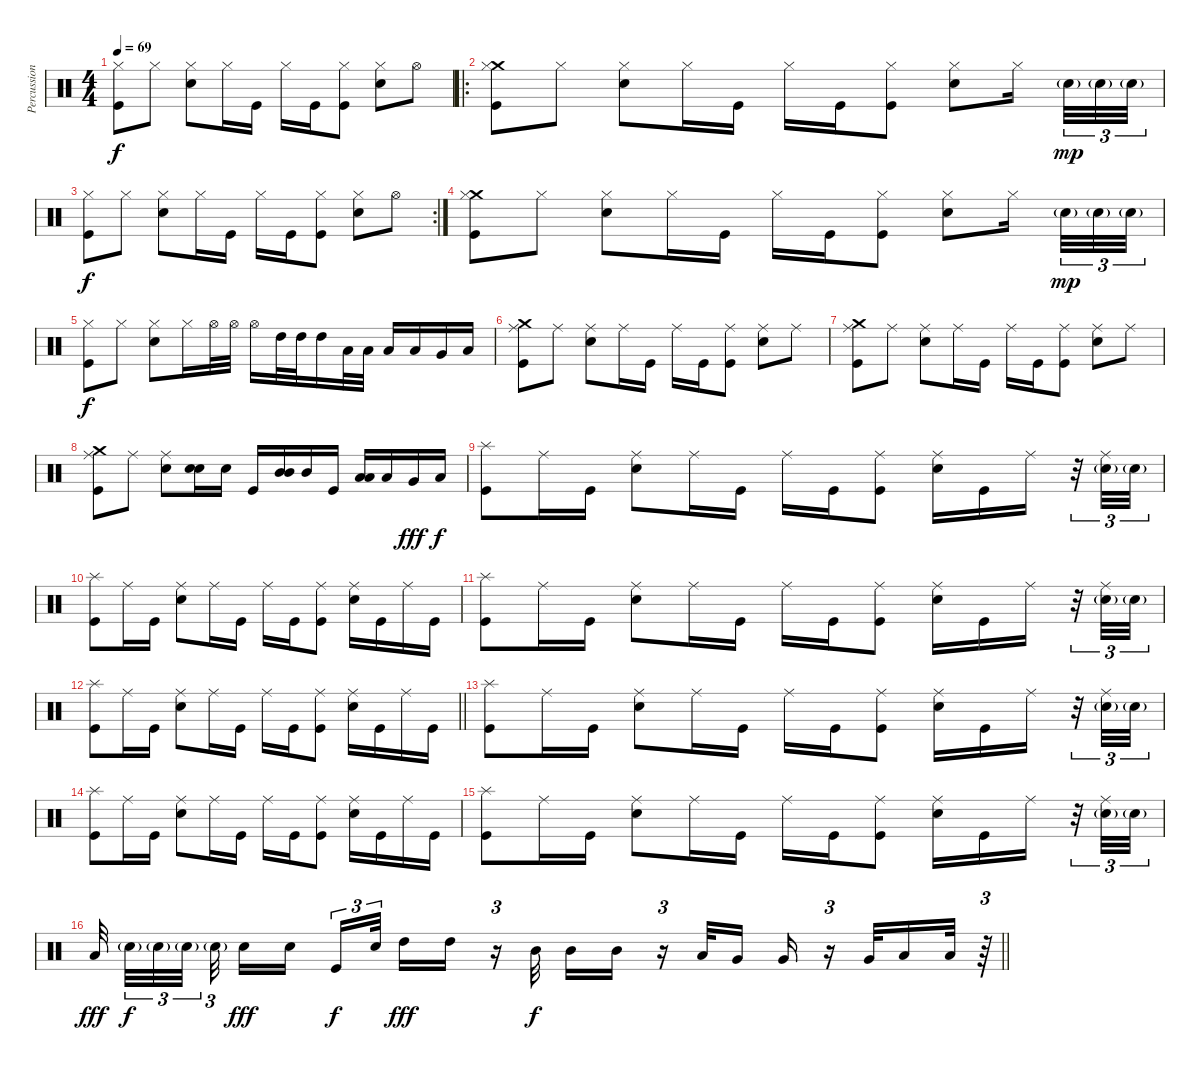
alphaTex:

\track ("Percussion" "Percussion") {instrument percussion}
\staff {score}
\articulation defaults
\ts (4 4)
\tempo 69
\clef neutral
\ks c
("Kick (hit)" "Hi-Hat (closed)").8{dy f} "Hi-Hat (closed)".8 ("Electric Snare (hit)" "Hi-Hat (closed)").8 "Hi-Hat (closed)".16 "Kick (hit)".16 "Hi-Hat (closed)".16 "Kick (hit)".16 ("Kick (hit)" "Hi-Hat (closed)").8 ("Electric Snare (hit)" "Hi-Hat (closed)").8 "Hi-Hat (open)".8 |
\ro
("Crash medium (hit)" "Kick (hit)" "Hi-Hat (closed)").8 "Hi-Hat (closed)".8 ("Electric Snare (hit)" "Hi-Hat (closed)").8 "Hi-Hat (closed)".16 "Kick (hit)".16 "Hi-Hat (closed)".16 "Kick (hit)".16 ("Kick (hit)" "Hi-Hat (closed)").8 ("Electric Snare (hit)" "Hi-Hat (closed)").8 "Hi-Hat (closed)".16{beam splitsecondary} "Electric Snare (hit)"{g}.32{tu (3 2) dy mp} "Electric Snare (hit)"{g}.32{tu (3 2)} "Electric Snare (hit)"{g}.32{tu (3 2)} |
\rc 2
("Kick (hit)" "Hi-Hat (closed)").8{dy f} "Hi-Hat (closed)".8 ("Electric Snare (hit)" "Hi-Hat (closed)").8 "Hi-Hat (closed)".16 "Kick (hit)".16 "Hi-Hat (closed)".16 "Kick (hit)".16 ("Kick (hit)" "Hi-Hat (closed)").8 ("Electric Snare (hit)" "Hi-Hat (closed)").8 "Hi-Hat (open)".8 |
("Crash medium (hit)" "Kick (hit)" "Hi-Hat (closed)").8 "Hi-Hat (closed)".8 ("Electric Snare (hit)" "Hi-Hat (closed)").8 "Hi-Hat (closed)".16 "Kick (hit)".16 "Hi-Hat (closed)".16 "Kick (hit)".16 ("Kick (hit)" "Hi-Hat (closed)").8 ("Electric Snare (hit)" "Hi-Hat (closed)").8 "Hi-Hat (closed)".16{beam splitsecondary} "Electric Snare (hit)"{g}.32{tu (3 2) dy mp} "Electric Snare (hit)"{g}.32{tu (3 2)} "Electric Snare (hit)"{g}.32{tu (3 2)} |
("Kick (hit)" "Hi-Hat (closed)").8{dy f} "Hi-Hat (closed)".8 ("Electric Snare (hit)" "Hi-Hat (closed)").8 "Hi-Hat (closed)".16 "Hi-Hat (open)".32 "Hi-Hat (open)".32 "Hi-Hat (open)".16 "High Tom (hit)".32 "High Tom (hit)".32 "High Tom (hit)".16 "Low Tom (hit)".32 "Low Tom (hit)".32 "Low Tom (hit)".16 "Low Tom (hit)".16 "Very Low Tom (hit)".16 "Low Floor Tom (hit)".16 |
("Crash medium (hit)" "Kick (hit)" "Ride (middle)").8 "Ride (middle)".8 ("Electric Snare (hit)" "Ride (middle)").8 "Ride (middle)".16 "Kick (hit)".16 "Ride (middle)".16 "Kick (hit)".16 ("Kick (hit)" "Ride (middle)").8 ("Electric Snare (hit)" "Ride (middle)").8 "Ride (middle)".8 |
("Crash medium (hit)" "Kick (hit)" "Ride (middle)").8 "Ride (middle)".8 ("Electric Snare (hit)" "Ride (middle)").8 "Ride (middle)".16 "Kick (hit)".16 "Ride (middle)".16 "Kick (hit)".16 ("Kick (hit)" "Ride (middle)").8 ("Electric Snare (hit)" "Ride (middle)").8 "Ride (middle)".8 |
("Crash medium (hit)" "Kick (hit)" "Ride (middle)").8 "Ride (middle)".8 ("Electric Snare (hit)" "Ride (middle)").8 ("Electric Snare (hit)" "Electric Snare (hit)").16{bd 60} "Electric Snare (hit)".16 "Kick (hit)".16 ("Mid Tom (hit)" "Mid Tom (hit)").16{bd 240} "Mid Tom (hit)".16 "Kick (hit)".16 ("Low Floor Tom (hit)" "Low Floor Tom (hit)").16{bd 240} "Low Floor Tom (hit)".16 "Very Low Tom (hit)".16{dy fff} "Low Floor Tom (hit)".16{dy f} |
("Splash (hit)" "Kick (hit)").8 "Ride (middle)".16 "Kick (hit)".16 ("Electric Snare (hit)" "Ride (middle)").8 "Ride (middle)".16 "Kick (hit)".16 "Ride (middle)".16 "Kick (hit)".16 ("Kick (hit)" "Ride (middle)").8 ("Electric Snare (hit)" "Ride (middle)").16 "Kick (hit)".16 "Ride (middle)".16 r.32{tu (3 2)} ("Electric Snare (hit)"{g} "Ride (middle)").32{tu (3 2)} "Electric Snare (hit)"{g}.32{tu (3 2)} |
("Splash (hit)" "Kick (hit)").8 "Ride (middle)".16 "Kick (hit)".16 ("Electric Snare (hit)" "Ride (middle)").8 "Ride (middle)".16 "Kick (hit)".16 "Ride (middle)".16 "Kick (hit)".16 ("Kick (hit)" "Ride (middle)").8 ("Electric Snare (hit)" "Ride (middle)").16 "Kick (hit)".16 "Ride (middle)".16 "Kick (hit)".16 |
("Splash (hit)" "Kick (hit)").8 "Ride (middle)".16 "Kick (hit)".16 ("Electric Snare (hit)" "Ride (middle)").8 "Ride (middle)".16 "Kick (hit)".16 "Ride (middle)".16 "Kick (hit)".16 ("Kick (hit)" "Ride (middle)").8 ("Electric Snare (hit)" "Ride (middle)").16 "Kick (hit)".16 "Ride (middle)".16 r.32{tu (3 2)} ("Electric Snare (hit)"{g} "Ride (middle)").32{tu (3 2)} "Electric Snare (hit)"{g}.32{tu (3 2)} |
\barLineRight lightlight
("Splash (hit)" "Kick (hit)").8 "Ride (middle)".16 "Kick (hit)".16 ("Electric Snare (hit)" "Ride (middle)").8 "Ride (middle)".16 "Kick (hit)".16 "Ride (middle)".16 "Kick (hit)".16 ("Kick (hit)" "Ride (middle)").8 ("Electric Snare (hit)" "Ride (middle)").16 "Kick (hit)".16 "Ride (middle)".16 "Kick (hit)".16 |
("Splash (hit)" "Kick (hit)").8 "Ride (middle)".16 "Kick (hit)".16 ("Electric Snare (hit)" "Ride (middle)").8 "Ride (middle)".16 "Kick (hit)".16 "Ride (middle)".16 "Kick (hit)".16 ("Kick (hit)" "Ride (middle)").8 ("Electric Snare (hit)" "Ride (middle)").16 "Kick (hit)".16 "Ride (middle)".16 r.32{tu (3 2)} ("Electric Snare (hit)"{g} "Ride (middle)").32{tu (3 2)} "Electric Snare (hit)"{g}.32{tu (3 2)} |
("Splash (hit)" "Kick (hit)").8 "Ride (middle)".16 "Kick (hit)".16 ("Electric Snare (hit)" "Ride (middle)").8 "Ride (middle)".16 "Kick (hit)".16 "Ride (middle)".16 "Kick (hit)".16 ("Kick (hit)" "Ride (middle)").8 ("Electric Snare (hit)" "Ride (middle)").16 "Kick (hit)".16 "Ride (middle)".16 "Kick (hit)".16 |
("Splash (hit)" "Kick (hit)").8 "Ride (middle)".16 "Kick (hit)".16 ("Electric Snare (hit)" "Ride (middle)").8 "Ride (middle)".16 "Kick (hit)".16 "Ride (middle)".16 "Kick (hit)".16 ("Kick (hit)" "Ride (middle)").8 ("Electric Snare (hit)" "Ride (middle)").16 "Kick (hit)".16 "Ride (middle)".16 r.32{tu (3 2)} ("Electric Snare (hit)"{g} "Ride (middle)").32{tu (3 2)} "Electric Snare (hit)"{g}.32{tu (3 2)} |
\barLineRight lightlight "Low Tom (hit)".32{dy fff beam splitsecondary} "Electric Snare (hit)"{g}.32{tu (3 2) dy f} "Electric Snare (hit)"{g}.32{tu (3 2)} "Electric Snare (hit)"{g}.32{tu (3 2) beam splitsecondary} "Electric Snare (hit)"{g}.32{tu (3 2) beam splitsecondary} "Electric Snare (hit)".16{dy fff} "Electric Snare (hit)".16{beam splitsecondary} "Kick (hit)".16{tu (3 2) dy f} "Electric Snare (hit)".32{tu (3 2) beam splitsecondary} "High Tom (hit)".16{dy fff} "High Tom (hit)".16
r.16{tu (3 2)} "Mid Tom (hit)".32{dy f} "Mid Tom (hit)".16 "Mid Tom (hit)".16 r.16{tu (3 2)} "Low Tom (hit)".32 "Very Low Tom (hit)".16 "Very Low Tom (hit)".16 r.16{tu (3 2)} "Very Low Tom (hit)".32 "Low Floor Tom (hit)".16 "Low Floor Tom (hit)".32 r.64{tu (3 2)}
